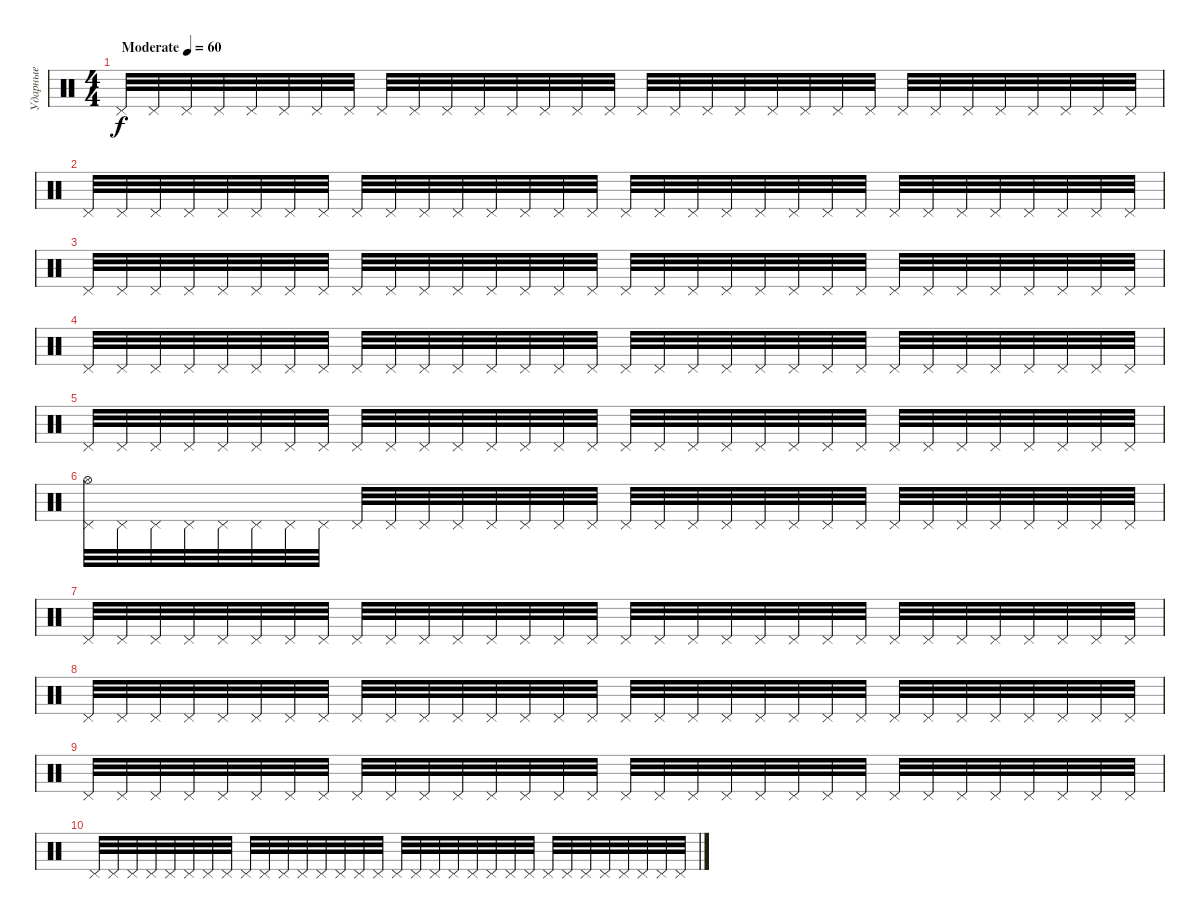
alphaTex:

\track ("Ударные" "Ударные") {instrument percussion}
\staff {score}
\articulation defaults
\ts (4 4)
\tempo (60 "Moderate")
\clef neutral
\ks c "Pedal Hi-Hat (hit)".32{dy f} "Pedal Hi-Hat (hit)".32 "Pedal Hi-Hat (hit)".32 "Pedal Hi-Hat (hit)".32 "Pedal Hi-Hat (hit)".32 "Pedal Hi-Hat (hit)".32 "Pedal Hi-Hat (hit)".32 "Pedal Hi-Hat (hit)".32 "Pedal Hi-Hat (hit)".32 "Pedal Hi-Hat (hit)".32 "Pedal Hi-Hat (hit)".32 "Pedal Hi-Hat (hit)".32 "Pedal Hi-Hat (hit)".32 "Pedal Hi-Hat (hit)".32 "Pedal Hi-Hat (hit)".32 "Pedal Hi-Hat (hit)".32 "Pedal Hi-Hat (hit)".32 "Pedal Hi-Hat (hit)".32 "Pedal Hi-Hat (hit)".32 "Pedal Hi-Hat (hit)".32 "Pedal Hi-Hat (hit)".32 "Pedal Hi-Hat (hit)".32 "Pedal Hi-Hat (hit)".32 "Pedal Hi-Hat (hit)".32 "Pedal Hi-Hat (hit)".32 "Pedal Hi-Hat (hit)".32 "Pedal Hi-Hat (hit)".32 "Pedal Hi-Hat (hit)".32 "Pedal Hi-Hat (hit)".32 "Pedal Hi-Hat (hit)".32 "Pedal Hi-Hat (hit)".32 "Pedal Hi-Hat (hit)".32
|
"Pedal Hi-Hat (hit)".32 "Pedal Hi-Hat (hit)".32 "Pedal Hi-Hat (hit)".32 "Pedal Hi-Hat (hit)".32 "Pedal Hi-Hat (hit)".32 "Pedal Hi-Hat (hit)".32 "Pedal Hi-Hat (hit)".32 "Pedal Hi-Hat (hit)".32 "Pedal Hi-Hat (hit)".32 "Pedal Hi-Hat (hit)".32 "Pedal Hi-Hat (hit)".32 "Pedal Hi-Hat (hit)".32 "Pedal Hi-Hat (hit)".32 "Pedal Hi-Hat (hit)".32 "Pedal Hi-Hat (hit)".32 "Pedal Hi-Hat (hit)".32 "Pedal Hi-Hat (hit)".32 "Pedal Hi-Hat (hit)".32 "Pedal Hi-Hat (hit)".32 "Pedal Hi-Hat (hit)".32 "Pedal Hi-Hat (hit)".32 "Pedal Hi-Hat (hit)".32 "Pedal Hi-Hat (hit)".32 "Pedal Hi-Hat (hit)".32 "Pedal Hi-Hat (hit)".32 "Pedal Hi-Hat (hit)".32 "Pedal Hi-Hat (hit)".32 "Pedal Hi-Hat (hit)".32 "Pedal Hi-Hat (hit)".32 "Pedal Hi-Hat (hit)".32 "Pedal Hi-Hat (hit)".32 "Pedal Hi-Hat (hit)".32 |
"Pedal Hi-Hat (hit)".32 "Pedal Hi-Hat (hit)".32 "Pedal Hi-Hat (hit)".32 "Pedal Hi-Hat (hit)".32 "Pedal Hi-Hat (hit)".32 "Pedal Hi-Hat (hit)".32 "Pedal Hi-Hat (hit)".32 "Pedal Hi-Hat (hit)".32 "Pedal Hi-Hat (hit)".32 "Pedal Hi-Hat (hit)".32 "Pedal Hi-Hat (hit)".32 "Pedal Hi-Hat (hit)".32 "Pedal Hi-Hat (hit)".32 "Pedal Hi-Hat (hit)".32 "Pedal Hi-Hat (hit)".32 "Pedal Hi-Hat (hit)".32 "Pedal Hi-Hat (hit)".32 "Pedal Hi-Hat (hit)".32 "Pedal Hi-Hat (hit)".32 "Pedal Hi-Hat (hit)".32 "Pedal Hi-Hat (hit)".32 "Pedal Hi-Hat (hit)".32 "Pedal Hi-Hat (hit)".32 "Pedal Hi-Hat (hit)".32 "Pedal Hi-Hat (hit)".32 "Pedal Hi-Hat (hit)".32 "Pedal Hi-Hat (hit)".32 "Pedal Hi-Hat (hit)".32 "Pedal Hi-Hat (hit)".32 "Pedal Hi-Hat (hit)".32 "Pedal Hi-Hat (hit)".32 "Pedal Hi-Hat (hit)".32 |
"Pedal Hi-Hat (hit)".32 "Pedal Hi-Hat (hit)".32 "Pedal Hi-Hat (hit)".32 "Pedal Hi-Hat (hit)".32 "Pedal Hi-Hat (hit)".32 "Pedal Hi-Hat (hit)".32 "Pedal Hi-Hat (hit)".32 "Pedal Hi-Hat (hit)".32 "Pedal Hi-Hat (hit)".32 "Pedal Hi-Hat (hit)".32 "Pedal Hi-Hat (hit)".32 "Pedal Hi-Hat (hit)".32 "Pedal Hi-Hat (hit)".32 "Pedal Hi-Hat (hit)".32 "Pedal Hi-Hat (hit)".32 "Pedal Hi-Hat (hit)".32 "Pedal Hi-Hat (hit)".32 "Pedal Hi-Hat (hit)".32 "Pedal Hi-Hat (hit)".32 "Pedal Hi-Hat (hit)".32 "Pedal Hi-Hat (hit)".32 "Pedal Hi-Hat (hit)".32 "Pedal Hi-Hat (hit)".32 "Pedal Hi-Hat (hit)".32 "Pedal Hi-Hat (hit)".32 "Pedal Hi-Hat (hit)".32 "Pedal Hi-Hat (hit)".32 "Pedal Hi-Hat (hit)".32 "Pedal Hi-Hat (hit)".32 "Pedal Hi-Hat (hit)".32 "Pedal Hi-Hat (hit)".32 "Pedal Hi-Hat (hit)".32 |
"Pedal Hi-Hat (hit)".32 "Pedal Hi-Hat (hit)".32 "Pedal Hi-Hat (hit)".32 "Pedal Hi-Hat (hit)".32 "Pedal Hi-Hat (hit)".32 "Pedal Hi-Hat (hit)".32 "Pedal Hi-Hat (hit)".32 "Pedal Hi-Hat (hit)".32 "Pedal Hi-Hat (hit)".32 "Pedal Hi-Hat (hit)".32 "Pedal Hi-Hat (hit)".32 "Pedal Hi-Hat (hit)".32 "Pedal Hi-Hat (hit)".32 "Pedal Hi-Hat (hit)".32 "Pedal Hi-Hat (hit)".32 "Pedal Hi-Hat (hit)".32 "Pedal Hi-Hat (hit)".32 "Pedal Hi-Hat (hit)".32 "Pedal Hi-Hat (hit)".32 "Pedal Hi-Hat (hit)".32 "Pedal Hi-Hat (hit)".32 "Pedal Hi-Hat (hit)".32 "Pedal Hi-Hat (hit)".32 "Pedal Hi-Hat (hit)".32 "Pedal Hi-Hat (hit)".32 "Pedal Hi-Hat (hit)".32 "Pedal Hi-Hat (hit)".32 "Pedal Hi-Hat (hit)".32 "Pedal Hi-Hat (hit)".32 "Pedal Hi-Hat (hit)".32 "Pedal Hi-Hat (hit)".32 "Pedal Hi-Hat (hit)".32 |
("Pedal Hi-Hat (hit)" "Hi-Hat (open)").32 "Pedal Hi-Hat (hit)".32 "Pedal Hi-Hat (hit)".32 "Pedal Hi-Hat (hit)".32 "Pedal Hi-Hat (hit)".32 "Pedal Hi-Hat (hit)".32 "Pedal Hi-Hat (hit)".32 "Pedal Hi-Hat (hit)".32 "Pedal Hi-Hat (hit)".32 "Pedal Hi-Hat (hit)".32 "Pedal Hi-Hat (hit)".32 "Pedal Hi-Hat (hit)".32 "Pedal Hi-Hat (hit)".32 "Pedal Hi-Hat (hit)".32 "Pedal Hi-Hat (hit)".32 "Pedal Hi-Hat (hit)".32 "Pedal Hi-Hat (hit)".32 "Pedal Hi-Hat (hit)".32 "Pedal Hi-Hat (hit)".32 "Pedal Hi-Hat (hit)".32 "Pedal Hi-Hat (hit)".32 "Pedal Hi-Hat (hit)".32 "Pedal Hi-Hat (hit)".32 "Pedal Hi-Hat (hit)".32 "Pedal Hi-Hat (hit)".32 "Pedal Hi-Hat (hit)".32 "Pedal Hi-Hat (hit)".32 "Pedal Hi-Hat (hit)".32 "Pedal Hi-Hat (hit)".32 "Pedal Hi-Hat (hit)".32 "Pedal Hi-Hat (hit)".32 "Pedal Hi-Hat (hit)".32 |
"Pedal Hi-Hat (hit)".32 "Pedal Hi-Hat (hit)".32 "Pedal Hi-Hat (hit)".32 "Pedal Hi-Hat (hit)".32 "Pedal Hi-Hat (hit)".32 "Pedal Hi-Hat (hit)".32 "Pedal Hi-Hat (hit)".32 "Pedal Hi-Hat (hit)".32 "Pedal Hi-Hat (hit)".32 "Pedal Hi-Hat (hit)".32 "Pedal Hi-Hat (hit)".32 "Pedal Hi-Hat (hit)".32 "Pedal Hi-Hat (hit)".32 "Pedal Hi-Hat (hit)".32 "Pedal Hi-Hat (hit)".32 "Pedal Hi-Hat (hit)".32 "Pedal Hi-Hat (hit)".32 "Pedal Hi-Hat (hit)".32 "Pedal Hi-Hat (hit)".32 "Pedal Hi-Hat (hit)".32 "Pedal Hi-Hat (hit)".32 "Pedal Hi-Hat (hit)".32 "Pedal Hi-Hat (hit)".32 "Pedal Hi-Hat (hit)".32 "Pedal Hi-Hat (hit)".32 "Pedal Hi-Hat (hit)".32 "Pedal Hi-Hat (hit)".32 "Pedal Hi-Hat (hit)".32 "Pedal Hi-Hat (hit)".32 "Pedal Hi-Hat (hit)".32 "Pedal Hi-Hat (hit)".32 "Pedal Hi-Hat (hit)".32 |
"Pedal Hi-Hat (hit)".32 "Pedal Hi-Hat (hit)".32 "Pedal Hi-Hat (hit)".32 "Pedal Hi-Hat (hit)".32 "Pedal Hi-Hat (hit)".32 "Pedal Hi-Hat (hit)".32 "Pedal Hi-Hat (hit)".32 "Pedal Hi-Hat (hit)".32 "Pedal Hi-Hat (hit)".32 "Pedal Hi-Hat (hit)".32 "Pedal Hi-Hat (hit)".32 "Pedal Hi-Hat (hit)".32 "Pedal Hi-Hat (hit)".32 "Pedal Hi-Hat (hit)".32 "Pedal Hi-Hat (hit)".32 "Pedal Hi-Hat (hit)".32 "Pedal Hi-Hat (hit)".32 "Pedal Hi-Hat (hit)".32 "Pedal Hi-Hat (hit)".32 "Pedal Hi-Hat (hit)".32 "Pedal Hi-Hat (hit)".32 "Pedal Hi-Hat (hit)".32 "Pedal Hi-Hat (hit)".32 "Pedal Hi-Hat (hit)".32 "Pedal Hi-Hat (hit)".32 "Pedal Hi-Hat (hit)".32 "Pedal Hi-Hat (hit)".32 "Pedal Hi-Hat (hit)".32 "Pedal Hi-Hat (hit)".32 "Pedal Hi-Hat (hit)".32 "Pedal Hi-Hat (hit)".32 "Pedal Hi-Hat (hit)".32 |
"Pedal Hi-Hat (hit)".32 "Pedal Hi-Hat (hit)".32 "Pedal Hi-Hat (hit)".32 "Pedal Hi-Hat (hit)".32 "Pedal Hi-Hat (hit)".32 "Pedal Hi-Hat (hit)".32 "Pedal Hi-Hat (hit)".32 "Pedal Hi-Hat (hit)".32 "Pedal Hi-Hat (hit)".32 "Pedal Hi-Hat (hit)".32 "Pedal Hi-Hat (hit)".32 "Pedal Hi-Hat (hit)".32 "Pedal Hi-Hat (hit)".32 "Pedal Hi-Hat (hit)".32 "Pedal Hi-Hat (hit)".32 "Pedal Hi-Hat (hit)".32 "Pedal Hi-Hat (hit)".32 "Pedal Hi-Hat (hit)".32 "Pedal Hi-Hat (hit)".32 "Pedal Hi-Hat (hit)".32 "Pedal Hi-Hat (hit)".32 "Pedal Hi-Hat (hit)".32 "Pedal Hi-Hat (hit)".32 "Pedal Hi-Hat (hit)".32 "Pedal Hi-Hat (hit)".32 "Pedal Hi-Hat (hit)".32 "Pedal Hi-Hat (hit)".32 "Pedal Hi-Hat (hit)".32 "Pedal Hi-Hat (hit)".32 "Pedal Hi-Hat (hit)".32 "Pedal Hi-Hat (hit)".32 "Pedal Hi-Hat (hit)".32 |
"Pedal Hi-Hat (hit)".32 "Pedal Hi-Hat (hit)".32 "Pedal Hi-Hat (hit)".32 "Pedal Hi-Hat (hit)".32 "Pedal Hi-Hat (hit)".32 "Pedal Hi-Hat (hit)".32 "Pedal Hi-Hat (hit)".32 "Pedal Hi-Hat (hit)".32 "Pedal Hi-Hat (hit)".32 "Pedal Hi-Hat (hit)".32 "Pedal Hi-Hat (hit)".32 "Pedal Hi-Hat (hit)".32 "Pedal Hi-Hat (hit)".32 "Pedal Hi-Hat (hit)".32 "Pedal Hi-Hat (hit)".32 "Pedal Hi-Hat (hit)".32 "Pedal Hi-Hat (hit)".32 "Pedal Hi-Hat (hit)".32 "Pedal Hi-Hat (hit)".32 "Pedal Hi-Hat (hit)".32 "Pedal Hi-Hat (hit)".32 "Pedal Hi-Hat (hit)".32 "Pedal Hi-Hat (hit)".32 "Pedal Hi-Hat (hit)".32 "Pedal Hi-Hat (hit)".32 "Pedal Hi-Hat (hit)".32 "Pedal Hi-Hat (hit)".32 "Pedal Hi-Hat (hit)".32 "Pedal Hi-Hat (hit)".32 "Pedal Hi-Hat (hit)".32 "Pedal Hi-Hat (hit)".32 "Pedal Hi-Hat (hit)".32
